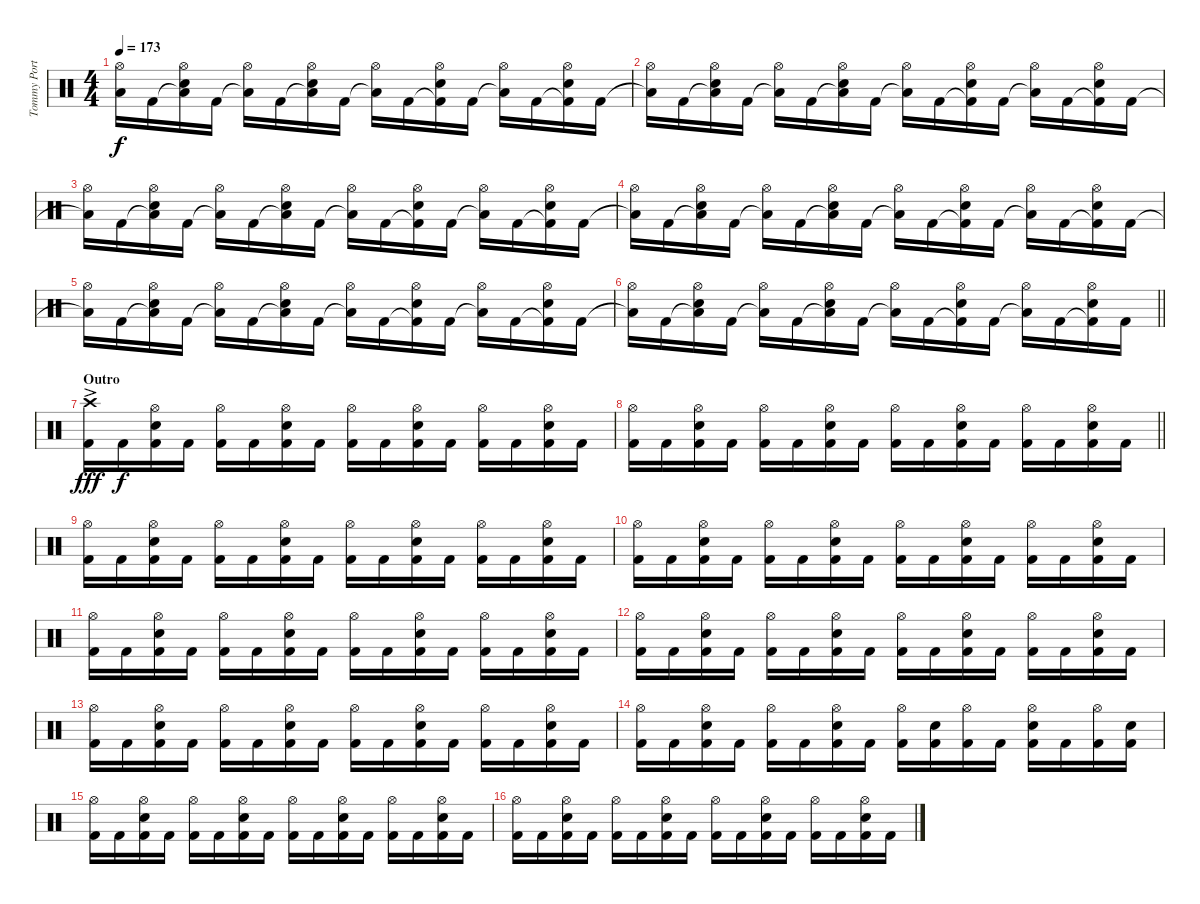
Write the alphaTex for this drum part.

\track ("Tommy Portimo - Drums" "Tommy Port") {instrument percussion}
\staff {score}
\articulation defaults
\ts (4 4)
\tempo 173
\clef neutral
\ks c
("Low Floor Tom (hit)"{t} "Hi-Hat (open)").16{dy f} "Kick (hit) 2".16 ("Low Floor Tom (hit)"{t} "Electric Snare (hit)" "Hi-Hat (open)").16 "Kick (hit) 2".16 ("Low Floor Tom (hit)"{t} "Hi-Hat (open)").16 "Kick (hit) 2".16 ("Low Floor Tom (hit)"{t} "Electric Snare (hit)" "Hi-Hat (open)").16 "Kick (hit) 2".16 ("Low Floor Tom (hit)"{t} "Hi-Hat (open)").16 "Kick (hit) 2".16 ("Kick (hit) 2"{t} "Electric Snare (hit)" "Hi-Hat (open)").16 "Kick (hit) 2".16 ("Low Floor Tom (hit)"{t} "Hi-Hat (open)").16 "Kick (hit) 2".16 ("Kick (hit) 2"{t} "Electric Snare (hit)" "Hi-Hat (open)").16 "Kick (hit) 2".16 |
("Low Floor Tom (hit)"{t} "Hi-Hat (open)").16 "Kick (hit) 2".16 ("Low Floor Tom (hit)"{t} "Electric Snare (hit)" "Hi-Hat (open)").16 "Kick (hit) 2".16 ("Low Floor Tom (hit)"{t} "Hi-Hat (open)").16 "Kick (hit) 2".16 ("Low Floor Tom (hit)"{t} "Electric Snare (hit)" "Hi-Hat (open)").16 "Kick (hit) 2".16 ("Low Floor Tom (hit)"{t} "Hi-Hat (open)").16 "Kick (hit) 2".16 ("Kick (hit) 2"{t} "Electric Snare (hit)" "Hi-Hat (open)").16 "Kick (hit) 2".16 ("Low Floor Tom (hit)"{t} "Hi-Hat (open)").16 "Kick (hit) 2".16 ("Kick (hit) 2"{t} "Electric Snare (hit)" "Hi-Hat (open)").16 "Kick (hit) 2".16 |
("Low Floor Tom (hit)"{t} "Hi-Hat (open)").16 "Kick (hit) 2".16 ("Low Floor Tom (hit)"{t} "Electric Snare (hit)" "Hi-Hat (open)").16 "Kick (hit) 2".16 ("Low Floor Tom (hit)"{t} "Hi-Hat (open)").16 "Kick (hit) 2".16 ("Low Floor Tom (hit)"{t} "Electric Snare (hit)" "Hi-Hat (open)").16 "Kick (hit) 2".16 ("Low Floor Tom (hit)"{t} "Hi-Hat (open)").16 "Kick (hit) 2".16 ("Kick (hit) 2"{t} "Electric Snare (hit)" "Hi-Hat (open)").16 "Kick (hit) 2".16 ("Low Floor Tom (hit)"{t} "Hi-Hat (open)").16 "Kick (hit) 2".16 ("Kick (hit) 2"{t} "Electric Snare (hit)" "Hi-Hat (open)").16 "Kick (hit) 2".16 |
("Low Floor Tom (hit)"{t} "Hi-Hat (open)").16 "Kick (hit) 2".16 ("Low Floor Tom (hit)"{t} "Electric Snare (hit)" "Hi-Hat (open)").16 "Kick (hit) 2".16 ("Low Floor Tom (hit)"{t} "Hi-Hat (open)").16 "Kick (hit) 2".16 ("Low Floor Tom (hit)"{t} "Electric Snare (hit)" "Hi-Hat (open)").16 "Kick (hit) 2".16 ("Low Floor Tom (hit)"{t} "Hi-Hat (open)").16 "Kick (hit) 2".16 ("Kick (hit) 2"{t} "Electric Snare (hit)" "Hi-Hat (open)").16 "Kick (hit) 2".16 ("Low Floor Tom (hit)"{t} "Hi-Hat (open)").16 "Kick (hit) 2".16 ("Kick (hit) 2"{t} "Electric Snare (hit)" "Hi-Hat (open)").16 "Kick (hit) 2".16 |
("Low Floor Tom (hit)"{t} "Hi-Hat (open)").16 "Kick (hit) 2".16 ("Low Floor Tom (hit)"{t} "Electric Snare (hit)" "Hi-Hat (open)").16 "Kick (hit) 2".16 ("Low Floor Tom (hit)"{t} "Hi-Hat (open)").16 "Kick (hit) 2".16 ("Low Floor Tom (hit)"{t} "Electric Snare (hit)" "Hi-Hat (open)").16 "Kick (hit) 2".16 ("Low Floor Tom (hit)"{t} "Hi-Hat (open)").16 "Kick (hit) 2".16 ("Kick (hit) 2"{t} "Electric Snare (hit)" "Hi-Hat (open)").16 "Kick (hit) 2".16 ("Low Floor Tom (hit)"{t} "Hi-Hat (open)").16 "Kick (hit) 2".16 ("Kick (hit) 2"{t} "Electric Snare (hit)" "Hi-Hat (open)").16 "Kick (hit) 2".16 |
\barLineRight lightlight
("Low Floor Tom (hit)"{t} "Hi-Hat (open)").16 "Kick (hit) 2".16 ("Low Floor Tom (hit)"{t} "Electric Snare (hit)" "Hi-Hat (open)").16 "Kick (hit) 2".16 ("Low Floor Tom (hit)"{t} "Hi-Hat (open)").16 "Kick (hit) 2".16 ("Low Floor Tom (hit)"{t} "Electric Snare (hit)" "Hi-Hat (open)").16 "Kick (hit) 2".16 ("Low Floor Tom (hit)"{t} "Hi-Hat (open)").16 "Kick (hit) 2".16 ("Kick (hit) 2"{t} "Electric Snare (hit)" "Hi-Hat (open)").16 "Kick (hit) 2".16 ("Low Floor Tom (hit)"{t} "Hi-Hat (open)").16 "Kick (hit) 2".16 ("Kick (hit) 2"{t} "Electric Snare (hit)" "Hi-Hat (open)").16 "Kick (hit) 2".16 |
\section ("" "Outro")
("Kick (hit) 2"{ac} "Crash high (hit)").16{dy fff} "Kick (hit) 2".16{dy f} ("Kick (hit) 2" "Electric Snare (hit)" "Hi-Hat (open)").16 "Kick (hit) 2".16 ("Kick (hit) 2" "Hi-Hat (open)").16 "Kick (hit) 2".16 ("Kick (hit) 2" "Electric Snare (hit)" "Hi-Hat (open)").16 "Kick (hit) 2".16 ("Kick (hit) 2" "Hi-Hat (open)").16 "Kick (hit) 2".16 ("Kick (hit) 2" "Electric Snare (hit)" "Hi-Hat (open)").16 "Kick (hit) 2".16 ("Kick (hit) 2" "Hi-Hat (open)").16 "Kick (hit) 2".16 ("Kick (hit) 2" "Electric Snare (hit)" "Hi-Hat (open)").16 "Kick (hit) 2".16 |
\barLineRight lightlight
("Kick (hit) 2" "Hi-Hat (open)").16 "Kick (hit) 2".16 ("Kick (hit) 2" "Electric Snare (hit)" "Hi-Hat (open)").16 "Kick (hit) 2".16 ("Kick (hit) 2" "Hi-Hat (open)").16 "Kick (hit) 2".16 ("Kick (hit) 2" "Electric Snare (hit)" "Hi-Hat (open)").16 "Kick (hit) 2".16 ("Kick (hit) 2" "Hi-Hat (open)").16 "Kick (hit) 2".16 ("Kick (hit) 2" "Electric Snare (hit)" "Hi-Hat (open)").16 "Kick (hit) 2".16 ("Kick (hit) 2" "Hi-Hat (open)").16 "Kick (hit) 2".16 ("Kick (hit) 2" "Electric Snare (hit)" "Hi-Hat (open)").16 "Kick (hit) 2".16 |
\ks aminor
("Kick (hit) 2" "Hi-Hat (open)").16 "Kick (hit) 2".16 ("Kick (hit) 2" "Electric Snare (hit)" "Hi-Hat (open)").16 "Kick (hit) 2".16 ("Kick (hit) 2" "Hi-Hat (open)").16 "Kick (hit) 2".16 ("Kick (hit) 2" "Electric Snare (hit)" "Hi-Hat (open)").16 "Kick (hit) 2".16 ("Kick (hit) 2" "Hi-Hat (open)").16 "Kick (hit) 2".16 ("Kick (hit) 2" "Electric Snare (hit)" "Hi-Hat (open)").16 "Kick (hit) 2".16 ("Kick (hit) 2" "Hi-Hat (open)").16 "Kick (hit) 2".16 ("Kick (hit) 2" "Electric Snare (hit)" "Hi-Hat (open)").16 "Kick (hit) 2".16 |
("Kick (hit) 2" "Hi-Hat (open)").16 "Kick (hit) 2".16 ("Kick (hit) 2" "Electric Snare (hit)" "Hi-Hat (open)").16 "Kick (hit) 2".16 ("Kick (hit) 2" "Hi-Hat (open)").16 "Kick (hit) 2".16 ("Kick (hit) 2" "Electric Snare (hit)" "Hi-Hat (open)").16 "Kick (hit) 2".16 ("Kick (hit) 2" "Hi-Hat (open)").16 "Kick (hit) 2".16 ("Kick (hit) 2" "Electric Snare (hit)" "Hi-Hat (open)").16 "Kick (hit) 2".16 ("Kick (hit) 2" "Hi-Hat (open)").16 "Kick (hit) 2".16 ("Kick (hit) 2" "Electric Snare (hit)" "Hi-Hat (open)").16 "Kick (hit) 2".16 |
("Kick (hit) 2" "Hi-Hat (open)").16 "Kick (hit) 2".16 ("Kick (hit) 2" "Electric Snare (hit)" "Hi-Hat (open)").16 "Kick (hit) 2".16 ("Kick (hit) 2" "Hi-Hat (open)").16 "Kick (hit) 2".16 ("Kick (hit) 2" "Electric Snare (hit)" "Hi-Hat (open)").16 "Kick (hit) 2".16 ("Kick (hit) 2" "Hi-Hat (open)").16 "Kick (hit) 2".16 ("Kick (hit) 2" "Electric Snare (hit)" "Hi-Hat (open)").16 "Kick (hit) 2".16 ("Kick (hit) 2" "Hi-Hat (open)").16 "Kick (hit) 2".16 ("Kick (hit) 2" "Electric Snare (hit)" "Hi-Hat (open)").16 "Kick (hit) 2".16 |
("Kick (hit) 2" "Hi-Hat (open)").16 "Kick (hit) 2".16 ("Kick (hit) 2" "Electric Snare (hit)" "Hi-Hat (open)").16 "Kick (hit) 2".16 ("Kick (hit) 2" "Hi-Hat (open)").16 "Kick (hit) 2".16 ("Kick (hit) 2" "Electric Snare (hit)" "Hi-Hat (open)").16 "Kick (hit) 2".16 ("Kick (hit) 2" "Hi-Hat (open)").16 "Kick (hit) 2".16 ("Kick (hit) 2" "Electric Snare (hit)" "Hi-Hat (open)").16 "Kick (hit) 2".16 ("Kick (hit) 2" "Hi-Hat (open)").16 "Kick (hit) 2".16 ("Kick (hit) 2" "Electric Snare (hit)" "Hi-Hat (open)").16 "Kick (hit) 2".16 |
("Kick (hit) 2" "Hi-Hat (open)").16 "Kick (hit) 2".16 ("Kick (hit) 2" "Electric Snare (hit)" "Hi-Hat (open)").16 "Kick (hit) 2".16 ("Kick (hit) 2" "Hi-Hat (open)").16 "Kick (hit) 2".16 ("Kick (hit) 2" "Electric Snare (hit)" "Hi-Hat (open)").16 "Kick (hit) 2".16 ("Kick (hit) 2" "Hi-Hat (open)").16 "Kick (hit) 2".16 ("Kick (hit) 2" "Electric Snare (hit)" "Hi-Hat (open)").16 "Kick (hit) 2".16 ("Kick (hit) 2" "Hi-Hat (open)").16 "Kick (hit) 2".16 ("Kick (hit) 2" "Electric Snare (hit)" "Hi-Hat (open)").16 "Kick (hit) 2".16 |
("Kick (hit) 2" "Hi-Hat (open)").16 "Kick (hit) 2".16 ("Kick (hit) 2" "Electric Snare (hit)" "Hi-Hat (open)").16 "Kick (hit) 2".16 ("Kick (hit) 2" "Hi-Hat (open)").16 "Kick (hit) 2".16 ("Kick (hit) 2" "Electric Snare (hit)" "Hi-Hat (open)").16 "Kick (hit) 2".16 ("Kick (hit) 2" "Hi-Hat (open)").16 ("Kick (hit) 2" "Electric Snare (hit)").16 ("Kick (hit) 2" "Hi-Hat (open)").16 "Kick (hit) 2".16 ("Kick (hit) 2" "Electric Snare (hit)" "Hi-Hat (open)").16 "Kick (hit) 2".16 ("Kick (hit) 2" "Hi-Hat (open)").16 ("Kick (hit) 2" "Electric Snare (hit)").16 |
("Kick (hit) 2" "Hi-Hat (open)").16 "Kick (hit) 2".16 ("Kick (hit) 2" "Electric Snare (hit)" "Hi-Hat (open)").16 "Kick (hit) 2".16 ("Kick (hit) 2" "Hi-Hat (open)").16 "Kick (hit) 2".16 ("Kick (hit) 2" "Electric Snare (hit)" "Hi-Hat (open)").16 "Kick (hit) 2".16 ("Kick (hit) 2" "Hi-Hat (open)").16 "Kick (hit) 2".16 ("Kick (hit) 2" "Electric Snare (hit)" "Hi-Hat (open)").16 "Kick (hit) 2".16 ("Kick (hit) 2" "Hi-Hat (open)").16 "Kick (hit) 2".16 ("Kick (hit) 2" "Electric Snare (hit)" "Hi-Hat (open)").16 "Kick (hit) 2".16 |
("Kick (hit) 2" "Hi-Hat (open)").16 "Kick (hit) 2".16 ("Kick (hit) 2" "Electric Snare (hit)" "Hi-Hat (open)").16 "Kick (hit) 2".16 ("Kick (hit) 2" "Hi-Hat (open)").16 "Kick (hit) 2".16 ("Kick (hit) 2" "Electric Snare (hit)" "Hi-Hat (open)").16 "Kick (hit) 2".16 ("Kick (hit) 2" "Hi-Hat (open)").16 "Kick (hit) 2".16 ("Kick (hit) 2" "Electric Snare (hit)" "Hi-Hat (open)").16 "Kick (hit) 2".16 ("Kick (hit) 2" "Hi-Hat (open)").16 "Kick (hit) 2".16 ("Kick (hit) 2" "Electric Snare (hit)" "Hi-Hat (open)").16 "Kick (hit) 2".16
